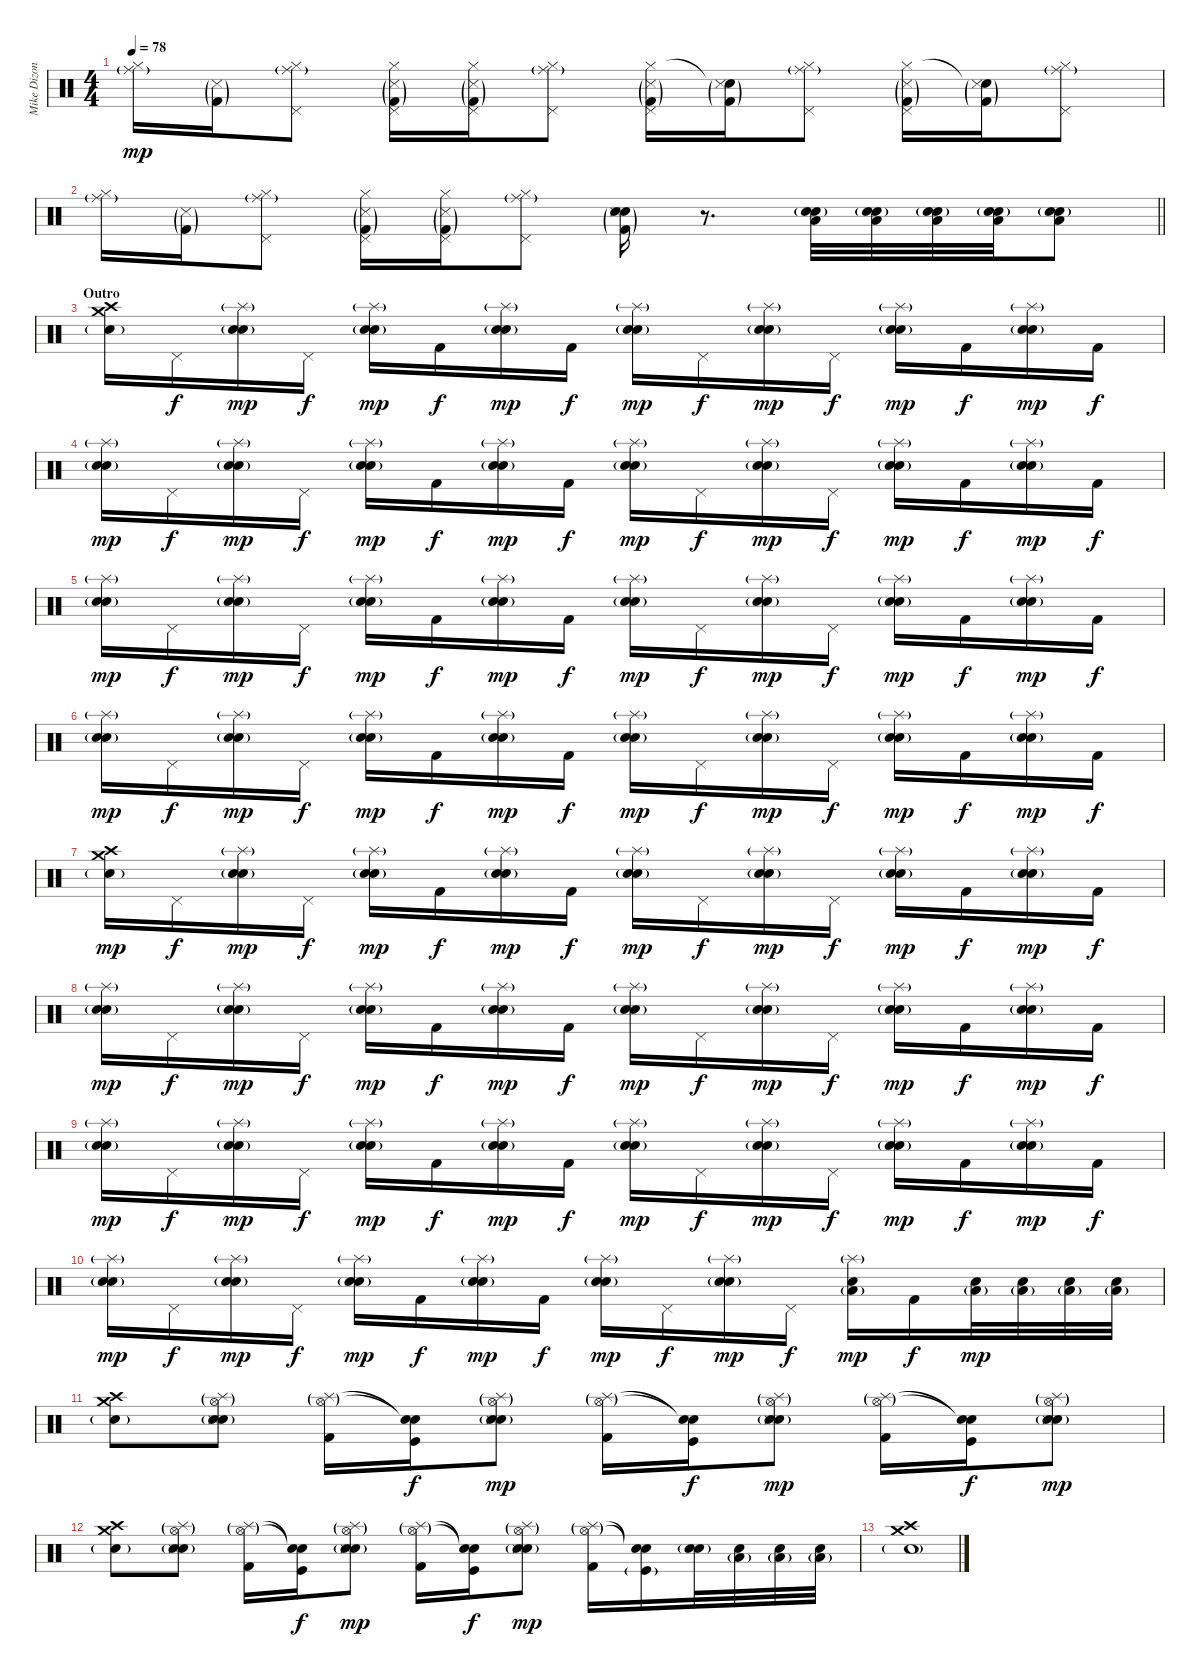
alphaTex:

\track ("Mike Dizon (Drums)" "Mike Dizon") {instrument percussion}
\staff {score}
\articulation defaults
\ts (4 4)
\tempo 78
\clef neutral
\ks c
("Hi-Hat (closed)" "Ride (middle)"{g}).16{dy mp} ("Snare (side stick) 3"{g} "Kick (hit) 2"{g}).16 ("Hi-Hat (closed)" "Pedal Hi-Hat (hit)" "Ride (middle)"{g}).8 ("Hi-Hat (closed)" "Pedal Hi-Hat (hit)" "Snare (side stick) 3"{g} "Kick (hit) 2"{g}).16 ("Hi-Hat (closed)" "Pedal Hi-Hat (hit)" "Snare (side stick) 3"{g} "Kick (hit) 2"{g}).16 ("Hi-Hat (closed)" "Pedal Hi-Hat (hit)" "Ride (middle)"{g}).8 ("Hi-Hat (closed)" "Pedal Hi-Hat (hit)" "Snare (side stick) 3"{g} "Kick (hit) 2"{g}).16 ("Snare (hit)"{t} "Snare (side stick) 3"{g} "Kick (hit) 2"{g}).16 ("Hi-Hat (closed)" "Pedal Hi-Hat (hit)" "Ride (middle)"{g}).8 ("Hi-Hat (closed)" "Pedal Hi-Hat (hit)" "Snare (side stick) 3"{g} "Kick (hit) 2"{g}).16 ("Snare (hit)"{t} "Snare (side stick) 3"{g} "Kick (hit) 2"{g}).16 ("Hi-Hat (closed)" "Pedal Hi-Hat (hit)" "Ride (middle)"{g}).8 |
\barLineRight lightlight
("Hi-Hat (closed)" "Ride (middle)"{g}).16 ("Snare (side stick) 3"{g} "Kick (hit) 2"{g}).16 ("Hi-Hat (closed)" "Pedal Hi-Hat (hit)" "Ride (middle)"{g}).8 ("Hi-Hat (closed)" "Pedal Hi-Hat (hit)" "Snare (side stick) 3"{g} "Kick (hit) 2"{g}).16 ("Hi-Hat (closed)" "Pedal Hi-Hat (hit)" "Snare (side stick) 3"{g} "Kick (hit) 2"{g}).16 ("Hi-Hat (closed)" "Pedal Hi-Hat (hit)" "Ride (middle)"{g}).8 ("Electric Snare (hit)" "Snare (hit) 2" "Snare (side stick) 3"{g} "Kick (hit) 2"{g}).16 r.8{d} ("Electric Snare (hit)" "Low Floor Tom (hit)" "Snare (hit) 2"{g}).32 ("Electric Snare (hit)" "Low Floor Tom (hit)" "Snare (hit) 2"{g}).32 ("Electric Snare (hit)" "Low Floor Tom (hit)" "Snare (hit) 2"{g}).32 ("Electric Snare (hit)" "Low Floor Tom (hit)" "Snare (hit) 2"{g}).32 ("Electric Snare (hit)" "Low Floor Tom (hit)" "Snare (hit) 2"{g}).8 |
\section ("" "Outro")
("Crash high (hit)" "Crash medium (hit)" "Electric Snare (hit)"{g}).16 "Pedal Hi-Hat (hit)".16{dy f} ("Electric Snare (hit)" "Snare (hit) 2"{g} "Splash (hit)"{g}).16{dy mp} "Pedal Hi-Hat (hit)".16{dy f} ("Electric Snare (hit)" "Snare (hit) 2"{g} "Splash (hit)"{g}).16{dy mp} "Kick (hit) 2".16{dy f} ("Electric Snare (hit)" "Snare (hit) 2"{g} "Splash (hit)"{g}).16{dy mp} "Kick (hit) 2".16{dy f} ("Electric Snare (hit)" "Snare (hit) 2"{g} "Splash (hit)"{g}).16{dy mp} "Pedal Hi-Hat (hit)".16{dy f} ("Electric Snare (hit)" "Snare (hit) 2"{g} "Splash (hit)"{g}).16{dy mp} "Pedal Hi-Hat (hit)".16{dy f} ("Electric Snare (hit)" "Snare (hit) 2"{g} "Splash (hit)"{g}).16{dy mp} "Kick (hit) 2".16{dy f} ("Electric Snare (hit)" "Snare (hit) 2"{g} "Splash (hit)"{g}).16{dy mp} "Kick (hit) 2".16{dy f} |
("Electric Snare (hit)" "Snare (hit) 2"{g} "Splash (hit)"{g}).16{dy mp} "Pedal Hi-Hat (hit)".16{dy f} ("Electric Snare (hit)" "Snare (hit) 2"{g} "Splash (hit)"{g}).16{dy mp} "Pedal Hi-Hat (hit)".16{dy f} ("Electric Snare (hit)" "Snare (hit) 2"{g} "Splash (hit)"{g}).16{dy mp} "Kick (hit) 2".16{dy f} ("Electric Snare (hit)" "Snare (hit) 2"{g} "Splash (hit)"{g}).16{dy mp} "Kick (hit) 2".16{dy f} ("Electric Snare (hit)" "Snare (hit) 2"{g} "Splash (hit)"{g}).16{dy mp} "Pedal Hi-Hat (hit)".16{dy f} ("Electric Snare (hit)" "Snare (hit) 2"{g} "Splash (hit)"{g}).16{dy mp} "Pedal Hi-Hat (hit)".16{dy f} ("Electric Snare (hit)" "Snare (hit) 2"{g} "Splash (hit)"{g}).16{dy mp} "Kick (hit) 2".16{dy f} ("Electric Snare (hit)" "Snare (hit) 2"{g} "Splash (hit)"{g}).16{dy mp} "Kick (hit) 2".16{dy f} |
("Electric Snare (hit)" "Snare (hit) 2"{g} "Splash (hit)"{g}).16{dy mp} "Pedal Hi-Hat (hit)".16{dy f} ("Electric Snare (hit)" "Snare (hit) 2"{g} "Splash (hit)"{g}).16{dy mp} "Pedal Hi-Hat (hit)".16{dy f} ("Electric Snare (hit)" "Snare (hit) 2"{g} "Splash (hit)"{g}).16{dy mp} "Kick (hit) 2".16{dy f} ("Electric Snare (hit)" "Snare (hit) 2"{g} "Splash (hit)"{g}).16{dy mp} "Kick (hit) 2".16{dy f} ("Electric Snare (hit)" "Snare (hit) 2"{g} "Splash (hit)"{g}).16{dy mp} "Pedal Hi-Hat (hit)".16{dy f} ("Electric Snare (hit)" "Snare (hit) 2"{g} "Splash (hit)"{g}).16{dy mp} "Pedal Hi-Hat (hit)".16{dy f} ("Electric Snare (hit)" "Snare (hit) 2"{g} "Splash (hit)"{g}).16{dy mp} "Kick (hit) 2".16{dy f} ("Electric Snare (hit)" "Snare (hit) 2"{g} "Splash (hit)"{g}).16{dy mp} "Kick (hit) 2".16{dy f} |
("Electric Snare (hit)" "Snare (hit) 2"{g} "Splash (hit)"{g}).16{dy mp} "Pedal Hi-Hat (hit)".16{dy f} ("Electric Snare (hit)" "Snare (hit) 2"{g} "Splash (hit)"{g}).16{dy mp} "Pedal Hi-Hat (hit)".16{dy f} ("Electric Snare (hit)" "Snare (hit) 2"{g} "Splash (hit)"{g}).16{dy mp} "Kick (hit) 2".16{dy f} ("Electric Snare (hit)" "Snare (hit) 2"{g} "Splash (hit)"{g}).16{dy mp} "Kick (hit) 2".16{dy f} ("Electric Snare (hit)" "Snare (hit) 2"{g} "Splash (hit)"{g}).16{dy mp} "Pedal Hi-Hat (hit)".16{dy f} ("Electric Snare (hit)" "Snare (hit) 2"{g} "Splash (hit)"{g}).16{dy mp} "Pedal Hi-Hat (hit)".16{dy f} ("Electric Snare (hit)" "Snare (hit) 2"{g} "Splash (hit)"{g}).16{dy mp} "Kick (hit) 2".16{dy f} ("Electric Snare (hit)" "Snare (hit) 2"{g} "Splash (hit)"{g}).16{dy mp} "Kick (hit) 2".16{dy f} |
("Crash high (hit)" "Crash medium (hit)" "Electric Snare (hit)"{g}).16{dy mp} "Pedal Hi-Hat (hit)".16{dy f} ("Electric Snare (hit)" "Snare (hit) 2"{g} "Splash (hit)"{g}).16{dy mp} "Pedal Hi-Hat (hit)".16{dy f} ("Electric Snare (hit)" "Snare (hit) 2"{g} "Splash (hit)"{g}).16{dy mp} "Kick (hit) 2".16{dy f} ("Electric Snare (hit)" "Snare (hit) 2"{g} "Splash (hit)"{g}).16{dy mp} "Kick (hit) 2".16{dy f} ("Electric Snare (hit)" "Snare (hit) 2"{g} "Splash (hit)"{g}).16{dy mp} "Pedal Hi-Hat (hit)".16{dy f} ("Electric Snare (hit)" "Snare (hit) 2"{g} "Splash (hit)"{g}).16{dy mp} "Pedal Hi-Hat (hit)".16{dy f} ("Electric Snare (hit)" "Snare (hit) 2"{g} "Splash (hit)"{g}).16{dy mp} "Kick (hit) 2".16{dy f} ("Electric Snare (hit)" "Snare (hit) 2"{g} "Splash (hit)"{g}).16{dy mp} "Kick (hit) 2".16{dy f} |
("Electric Snare (hit)" "Snare (hit) 2"{g} "Splash (hit)"{g}).16{dy mp} "Pedal Hi-Hat (hit)".16{dy f} ("Electric Snare (hit)" "Snare (hit) 2"{g} "Splash (hit)"{g}).16{dy mp} "Pedal Hi-Hat (hit)".16{dy f} ("Electric Snare (hit)" "Snare (hit) 2"{g} "Splash (hit)"{g}).16{dy mp} "Kick (hit) 2".16{dy f} ("Electric Snare (hit)" "Snare (hit) 2"{g} "Splash (hit)"{g}).16{dy mp} "Kick (hit) 2".16{dy f} ("Electric Snare (hit)" "Snare (hit) 2"{g} "Splash (hit)"{g}).16{dy mp} "Pedal Hi-Hat (hit)".16{dy f} ("Electric Snare (hit)" "Snare (hit) 2"{g} "Splash (hit)"{g}).16{dy mp} "Pedal Hi-Hat (hit)".16{dy f} ("Electric Snare (hit)" "Snare (hit) 2"{g} "Splash (hit)"{g}).16{dy mp} "Kick (hit) 2".16{dy f} ("Electric Snare (hit)" "Snare (hit) 2"{g} "Splash (hit)"{g}).16{dy mp} "Kick (hit) 2".16{dy f} |
("Electric Snare (hit)" "Snare (hit) 2"{g} "Splash (hit)"{g}).16{dy mp} "Pedal Hi-Hat (hit)".16{dy f} ("Electric Snare (hit)" "Snare (hit) 2"{g} "Splash (hit)"{g}).16{dy mp} "Pedal Hi-Hat (hit)".16{dy f} ("Electric Snare (hit)" "Snare (hit) 2"{g} "Splash (hit)"{g}).16{dy mp} "Kick (hit) 2".16{dy f} ("Electric Snare (hit)" "Snare (hit) 2"{g} "Splash (hit)"{g}).16{dy mp} "Kick (hit) 2".16{dy f} ("Electric Snare (hit)" "Snare (hit) 2"{g} "Splash (hit)"{g}).16{dy mp} "Pedal Hi-Hat (hit)".16{dy f} ("Electric Snare (hit)" "Snare (hit) 2"{g} "Splash (hit)"{g}).16{dy mp} "Pedal Hi-Hat (hit)".16{dy f} ("Electric Snare (hit)" "Snare (hit) 2"{g} "Splash (hit)"{g}).16{dy mp} "Kick (hit) 2".16{dy f} ("Electric Snare (hit)" "Snare (hit) 2"{g} "Splash (hit)"{g}).16{dy mp} "Kick (hit) 2".16{dy f} |
("Electric Snare (hit)" "Snare (hit) 2"{g} "Splash (hit)"{g}).16{dy mp} "Pedal Hi-Hat (hit)".16{dy f} ("Electric Snare (hit)" "Snare (hit) 2"{g} "Splash (hit)"{g}).16{dy mp} "Pedal Hi-Hat (hit)".16{dy f} ("Electric Snare (hit)" "Snare (hit) 2"{g} "Splash (hit)"{g}).16{dy mp} "Kick (hit) 2".16{dy f} ("Electric Snare (hit)" "Snare (hit) 2"{g} "Splash (hit)"{g}).16{dy mp} "Kick (hit) 2".16{dy f} ("Electric Snare (hit)" "Snare (hit) 2"{g} "Splash (hit)"{g}).16{dy mp} "Pedal Hi-Hat (hit)".16{dy f} ("Electric Snare (hit)" "Snare (hit) 2"{g} "Splash (hit)"{g}).16{dy mp} "Pedal Hi-Hat (hit)".16{dy f} ("Electric Snare (hit)" "Low Floor Tom (hit)"{g} "Splash (hit)"{g}).16{dy mp} "Kick (hit) 2".16{dy f} ("Electric Snare (hit)" "Low Floor Tom (hit)"{g}).32{dy mp} ("Electric Snare (hit)" "Low Floor Tom (hit)"{g}).32 ("Electric Snare (hit)" "Low Floor Tom (hit)"{g}).32 ("Electric Snare (hit)" "Low Floor Tom (hit)"{g}).32 |
("Crash high (hit)" "Crash medium (hit)" "Electric Snare (hit)"{g}).8 ("Electric Snare (hit)" "Snare (hit) 2"{g} "Snare (side stick) 3" "Hi-Hat (open)"{g} "Splash (hit)"{g}).8 ("Kick (hit) 2" "Hi-Hat (open)"{g} "Splash (hit)"{g}).16 ("Kick (hit)" "Snare (hit)"{t} "Snare (hit)"{t}).16{dy f} ("Electric Snare (hit)" "Snare (hit) 2"{g} "Snare (side stick) 3" "Hi-Hat (open)"{g} "Splash (hit)"{g}).8{dy mp} ("Kick (hit) 2" "Hi-Hat (open)"{g} "Splash (hit)"{g}).16 ("Kick (hit)" "Snare (hit)"{t} "Snare (hit)"{t}).16{dy f} ("Electric Snare (hit)" "Snare (hit) 2"{g} "Snare (side stick) 3" "Hi-Hat (open)"{g} "Splash (hit)"{g}).8{dy mp} ("Kick (hit) 2" "Hi-Hat (open)"{g} "Splash (hit)"{g}).16 ("Kick (hit)" "Snare (hit)"{t} "Snare (hit)"{t}).16{dy f} ("Electric Snare (hit)" "Snare (hit) 2"{g} "Snare (side stick) 3" "Hi-Hat (open)"{g} "Splash (hit)"{g}).8{dy mp} |
("Crash high (hit)" "Crash medium (hit)" "Electric Snare (hit)"{g}).8 ("Electric Snare (hit)" "Snare (hit) 2"{g} "Snare (side stick) 3" "Hi-Hat (open)"{g} "Splash (hit)"{g}).8 ("Kick (hit) 2" "Hi-Hat (open)"{g} "Splash (hit)"{g}).16 ("Kick (hit)" "Snare (hit)"{t} "Snare (hit)"{t}).16{dy f} ("Electric Snare (hit)" "Snare (hit) 2"{g} "Snare (side stick) 3" "Hi-Hat (open)"{g} "Splash (hit)"{g}).8{dy mp} ("Kick (hit) 2" "Hi-Hat (open)"{g} "Splash (hit)"{g}).16 ("Kick (hit)" "Snare (hit)"{t} "Snare (hit)"{t}).16{dy f} ("Electric Snare (hit)" "Snare (hit) 2"{g} "Snare (side stick) 3" "Hi-Hat (open)"{g} "Splash (hit)"{g}).8{dy mp} ("Kick (hit) 2" "Hi-Hat (open)"{g} "Splash (hit)"{g}).16 ("Kick (hit)"{g} "Snare (hit)"{t} "Snare (hit)"{t}).16 ("Electric Snare (hit)" "Snare (hit) 2"{g}).32 ("Electric Snare (hit)" "Low Floor Tom (hit)"{g}).32 ("Electric Snare (hit)" "Low Floor Tom (hit)"{g}).32 ("Electric Snare (hit)" "Low Floor Tom (hit)"{g}).32 |
("Crash high (hit)" "Crash medium (hit)" "Electric Snare (hit)"{g}).1
